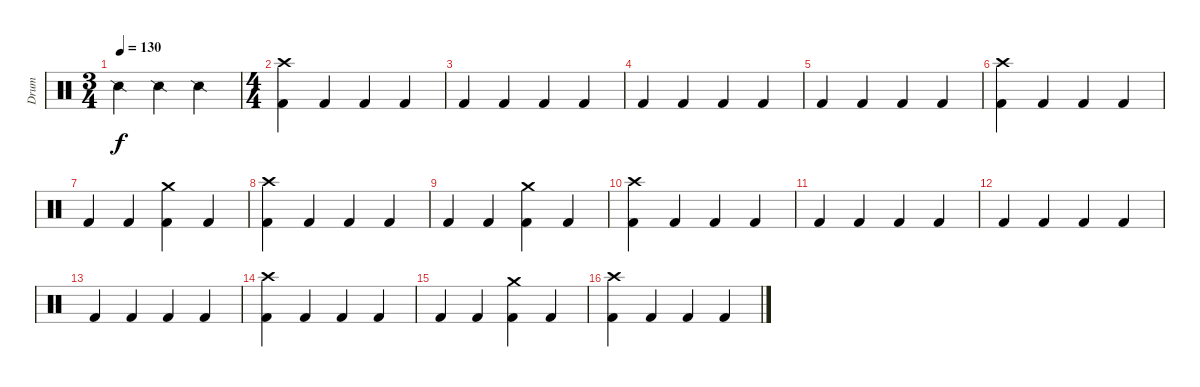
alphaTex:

\track ("Drum" "Drum") {instrument percussion}
\staff {score}
\articulation defaults
\ts (3 4)
\tempo 130
\clef neutral
\ks c "Snare (side stick) 2".4{dy f} "Snare (side stick) 2".4 "Snare (side stick) 2".4
|
\ts (4 4)
("Kick (hit) 2" "Crash high (hit)").4 "Kick (hit) 2".4 "Kick (hit) 2".4 "Kick (hit) 2".4 |
"Kick (hit) 2".4 "Kick (hit) 2".4 "Kick (hit) 2".4 "Kick (hit) 2".4 |
"Kick (hit) 2".4 "Kick (hit) 2".4 "Kick (hit) 2".4 "Kick (hit) 2".4 |
"Kick (hit) 2".4 "Kick (hit) 2".4 "Kick (hit) 2".4 "Kick (hit) 2".4 |
("Kick (hit) 2" "Crash high (hit)").4 "Kick (hit) 2".4 "Kick (hit) 2".4 "Kick (hit) 2".4 |
"Kick (hit) 2".4 "Kick (hit) 2".4 ("Kick (hit) 2" "Crash medium (hit)").4 "Kick (hit) 2".4 |
("Kick (hit) 2" "Crash high (hit)").4 "Kick (hit) 2".4 "Kick (hit) 2".4 "Kick (hit) 2".4 |
"Kick (hit) 2".4 "Kick (hit) 2".4 ("Kick (hit) 2" "Crash medium (hit)").4 "Kick (hit) 2".4 |
("Kick (hit) 2" "Crash high (hit)").4 "Kick (hit) 2".4 "Kick (hit) 2".4 "Kick (hit) 2".4 |
"Kick (hit) 2".4 "Kick (hit) 2".4 "Kick (hit) 2".4 "Kick (hit) 2".4 |
"Kick (hit) 2".4 "Kick (hit) 2".4 "Kick (hit) 2".4 "Kick (hit) 2".4 |
"Kick (hit) 2".4 "Kick (hit) 2".4 "Kick (hit) 2".4 "Kick (hit) 2".4 |
("Kick (hit) 2" "Crash high (hit)").4 "Kick (hit) 2".4 "Kick (hit) 2".4 "Kick (hit) 2".4 |
"Kick (hit) 2".4 "Kick (hit) 2".4 ("Kick (hit) 2" "Crash medium (hit)").4 "Kick (hit) 2".4 |
("Kick (hit) 2" "Crash high (hit)").4 "Kick (hit) 2".4 "Kick (hit) 2".4 "Kick (hit) 2".4
